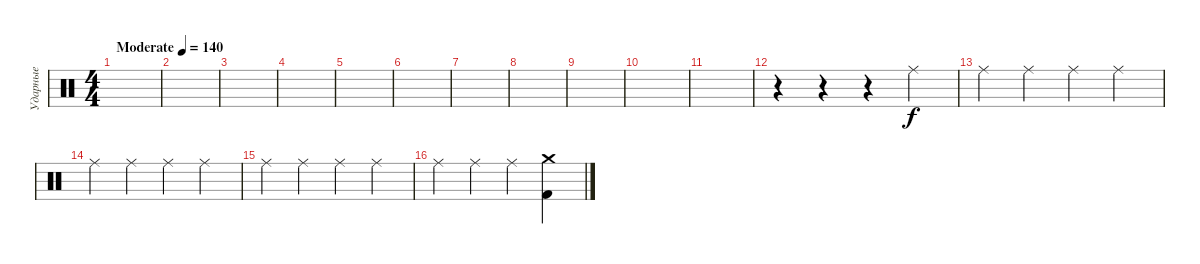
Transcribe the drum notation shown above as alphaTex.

\track ("Ударные" "Ударные") {instrument percussion}
\staff {score}
\articulation defaults
\ts (4 4)
\tempo (140 "Moderate")
\clef neutral
\ks c
|
|
|
|
|
|
|
|
|
|
|
r.4 r.4 r.4 "Ride (middle)".4 |
"Ride (middle)".4 "Ride (middle)".4 "Ride (middle)".4 "Ride (middle)".4 |
"Ride (middle)".4 "Ride (middle)".4 "Ride (middle)".4 "Ride (middle)".4 |
"Ride (middle)".4 "Ride (middle)".4 "Ride (middle)".4 "Ride (middle)".4 |
"Ride (middle)".4 "Ride (middle)".4 "Ride (middle)".4 ("Crash medium (hit)" "Kick (hit) 2").4
